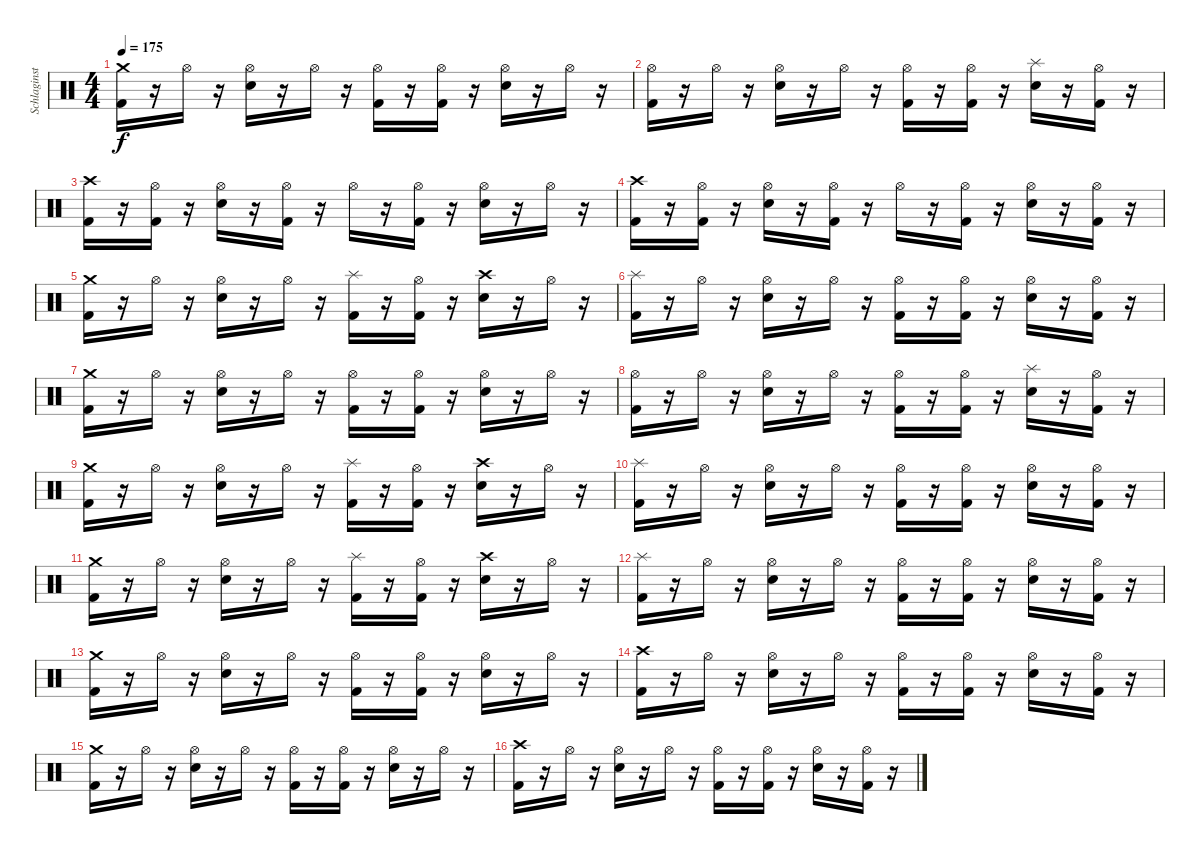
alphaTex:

\track ("Schlaginstrumente - Auswahl" "Schlaginst") {instrument percussion}
\staff {score}
\articulation defaults
\ts (4 4)
\tempo 175
\clef neutral
\ks c
("Crash medium (hit)" "Kick (hit) 2").16{dy f} r.16 "Hi-Hat (open)".16 r.16 ("Hi-Hat (open)" "Electric Snare (hit)").16 r.16 "Hi-Hat (open)".16 r.16 ("Hi-Hat (open)" "Kick (hit) 2").16 r.16 ("Hi-Hat (open)" "Kick (hit) 2").16 r.16 ("Hi-Hat (open)" "Electric Snare (hit)").16 r.16 "Hi-Hat (open)".16 r.16 |
("Hi-Hat (open)" "Kick (hit) 2").16 r.16 "Hi-Hat (open)".16 r.16 ("Hi-Hat (open)" "Electric Snare (hit)").16 r.16 "Hi-Hat (open)".16 r.16 ("Hi-Hat (open)" "Kick (hit) 2").16 r.16 ("Hi-Hat (open)" "Kick (hit) 2").16 r.16 ("Splash (hit)" "Electric Snare (hit)").16 r.16 ("Hi-Hat (open)" "Kick (hit) 2").16 r.16 |
("Crash high (hit)" "Kick (hit) 2").16 r.16 ("Hi-Hat (open)" "Kick (hit) 2").16 r.16 ("Hi-Hat (open)" "Electric Snare (hit)").16 r.16 ("Hi-Hat (open)" "Kick (hit) 2").16 r.16 "Hi-Hat (open)".16 r.16 ("Hi-Hat (open)" "Kick (hit) 2").16 r.16 ("Hi-Hat (open)" "Electric Snare (hit)").16 r.16 "Hi-Hat (open)".16 r.16 |
("Crash high (hit)" "Kick (hit) 2").16 r.16 ("Hi-Hat (open)" "Kick (hit) 2").16 r.16 ("Hi-Hat (open)" "Electric Snare (hit)").16 r.16 ("Hi-Hat (open)" "Kick (hit) 2").16 r.16 "Hi-Hat (open)".16 r.16 ("Hi-Hat (open)" "Kick (hit) 2").16 r.16 ("Hi-Hat (open)" "Electric Snare (hit)").16 r.16 ("Hi-Hat (open)" "Kick (hit) 2").16 r.16 |
("Crash medium (hit)" "Kick (hit) 2").16 r.16 "Hi-Hat (open)".16 r.16 ("Hi-Hat (open)" "Electric Snare (hit)").16 r.16 "Hi-Hat (open)".16 r.16 ("Splash (hit)" "Kick (hit) 2").16 r.16 ("Hi-Hat (open)" "Kick (hit) 2").16 r.16 ("Crash high (hit)" "Electric Snare (hit)").16 r.16 "Hi-Hat (open)".16 r.16 |
("Splash (hit)" "Kick (hit) 2").16 r.16 "Hi-Hat (open)".16 r.16 ("Hi-Hat (open)" "Electric Snare (hit)").16 r.16 "Hi-Hat (open)".16 r.16 ("Hi-Hat (open)" "Kick (hit) 2").16 r.16 ("Hi-Hat (open)" "Kick (hit) 2").16 r.16 ("Hi-Hat (open)" "Electric Snare (hit)").16 r.16 ("Hi-Hat (open)" "Kick (hit) 2").16 r.16 |
("Crash medium (hit)" "Kick (hit) 2").16 r.16 "Hi-Hat (open)".16 r.16 ("Hi-Hat (open)" "Electric Snare (hit)").16 r.16 "Hi-Hat (open)".16 r.16 ("Hi-Hat (open)" "Kick (hit) 2").16 r.16 ("Hi-Hat (open)" "Kick (hit) 2").16 r.16 ("Hi-Hat (open)" "Electric Snare (hit)").16 r.16 "Hi-Hat (open)".16 r.16 |
("Hi-Hat (open)" "Kick (hit) 2").16 r.16 "Hi-Hat (open)".16 r.16 ("Hi-Hat (open)" "Electric Snare (hit)").16 r.16 "Hi-Hat (open)".16 r.16 ("Hi-Hat (open)" "Kick (hit) 2").16 r.16 ("Hi-Hat (open)" "Kick (hit) 2").16 r.16 ("Splash (hit)" "Electric Snare (hit)").16 r.16 ("Hi-Hat (open)" "Kick (hit) 2").16 r.16 |
("Crash medium (hit)" "Kick (hit) 2").16 r.16 "Hi-Hat (open)".16 r.16 ("Hi-Hat (open)" "Electric Snare (hit)").16 r.16 "Hi-Hat (open)".16 r.16 ("Splash (hit)" "Kick (hit) 2").16 r.16 ("Hi-Hat (open)" "Kick (hit) 2").16 r.16 ("Crash high (hit)" "Electric Snare (hit)").16 r.16 "Hi-Hat (open)".16 r.16 |
("Splash (hit)" "Kick (hit) 2").16 r.16 "Hi-Hat (open)".16 r.16 ("Hi-Hat (open)" "Electric Snare (hit)").16 r.16 "Hi-Hat (open)".16 r.16 ("Hi-Hat (open)" "Kick (hit) 2").16 r.16 ("Hi-Hat (open)" "Kick (hit) 2").16 r.16 ("Hi-Hat (open)" "Electric Snare (hit)").16 r.16 ("Hi-Hat (open)" "Kick (hit) 2").16 r.16 |
("Crash medium (hit)" "Kick (hit) 2").16 r.16 "Hi-Hat (open)".16 r.16 ("Hi-Hat (open)" "Electric Snare (hit)").16 r.16 "Hi-Hat (open)".16 r.16 ("Splash (hit)" "Kick (hit) 2").16 r.16 ("Hi-Hat (open)" "Kick (hit) 2").16 r.16 ("Crash high (hit)" "Electric Snare (hit)").16 r.16 "Hi-Hat (open)".16 r.16 |
("Splash (hit)" "Kick (hit) 2").16 r.16 "Hi-Hat (open)".16 r.16 ("Hi-Hat (open)" "Electric Snare (hit)").16 r.16 "Hi-Hat (open)".16 r.16 ("Hi-Hat (open)" "Kick (hit) 2").16 r.16 ("Hi-Hat (open)" "Kick (hit) 2").16 r.16 ("Hi-Hat (open)" "Electric Snare (hit)").16 r.16 ("Hi-Hat (open)" "Kick (hit) 2").16 r.16 |
("Crash medium (hit)" "Kick (hit) 2").16 r.16 "Hi-Hat (open)".16 r.16 ("Hi-Hat (open)" "Electric Snare (hit)").16 r.16 "Hi-Hat (open)".16 r.16 ("Hi-Hat (open)" "Kick (hit) 2").16 r.16 ("Hi-Hat (open)" "Kick (hit) 2").16 r.16 ("Hi-Hat (open)" "Electric Snare (hit)").16 r.16 "Hi-Hat (open)".16 r.16 |
("Crash high (hit)" "Kick (hit) 2").16 r.16 "Hi-Hat (open)".16 r.16 ("Hi-Hat (open)" "Electric Snare (hit)").16 r.16 "Hi-Hat (open)".16 r.16 ("Hi-Hat (open)" "Kick (hit) 2").16 r.16 ("Hi-Hat (open)" "Kick (hit) 2").16 r.16 ("Hi-Hat (open)" "Electric Snare (hit)").16 r.16 ("Hi-Hat (open)" "Kick (hit) 2").16 r.16 |
("Crash medium (hit)" "Kick (hit) 2").16 r.16 "Hi-Hat (open)".16 r.16 ("Hi-Hat (open)" "Electric Snare (hit)").16 r.16 "Hi-Hat (open)".16 r.16 ("Hi-Hat (open)" "Kick (hit) 2").16 r.16 ("Hi-Hat (open)" "Kick (hit) 2").16 r.16 ("Hi-Hat (open)" "Electric Snare (hit)").16 r.16 "Hi-Hat (open)".16 r.16 |
("Crash high (hit)" "Kick (hit) 2").16 r.16 "Hi-Hat (open)".16 r.16 ("Hi-Hat (open)" "Electric Snare (hit)").16 r.16 "Hi-Hat (open)".16 r.16 ("Hi-Hat (open)" "Kick (hit) 2").16 r.16 ("Hi-Hat (open)" "Kick (hit) 2").16 r.16 ("Hi-Hat (open)" "Electric Snare (hit)").16 r.16 ("Hi-Hat (open)" "Kick (hit) 2").16 r.16
